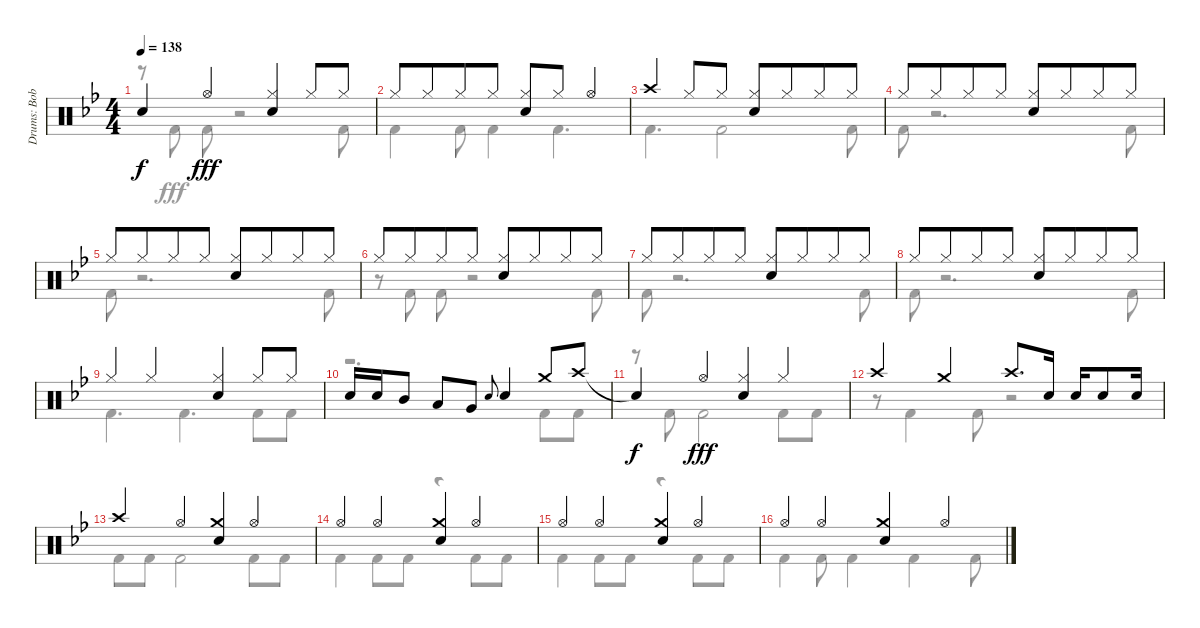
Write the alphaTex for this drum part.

\track ("Drums: Bobby" "Drums: Bob") {instrument percussion}
\staff {score}
\articulation defaults
\voice
\ts (4 4)
\tempo 138
\clef neutral
\ks bb "Snare (hit)"{t}.4{dy f} "Hi-Hat (open)".4{dy fff}
("Hi-Hat (closed)" "Snare (hit) 2").4{beam merge} "Hi-Hat (closed)".8 "Hi-Hat (closed)".8 |
"Hi-Hat (closed)".8 "Hi-Hat (closed)".8{beam merge} "Hi-Hat (closed)".8 "Hi-Hat (closed)".8 ("Hi-Hat (closed)" "Snare (hit) 2").8 "Hi-Hat (closed)".8{beam merge} "Hi-Hat (open)".4 |
"Crash high (hit)".4{beam merge} "Hi-Hat (closed)".8 "Hi-Hat (closed)".8 ("Hi-Hat (closed)" "Snare (hit) 2").8 "Hi-Hat (closed)".8{beam merge} "Hi-Hat (closed)".8 "Hi-Hat (closed)".8 |
"Hi-Hat (closed)".8 "Hi-Hat (closed)".8{beam merge} "Hi-Hat (closed)".8 "Hi-Hat (closed)".8 ("Hi-Hat (closed)" "Snare (hit) 2").8 "Hi-Hat (closed)".8{beam merge} "Hi-Hat (closed)".8 "Hi-Hat (closed)".8 |
"Hi-Hat (closed)".8 "Hi-Hat (closed)".8{beam merge} "Hi-Hat (closed)".8 "Hi-Hat (closed)".8 ("Hi-Hat (closed)" "Snare (hit) 2").8 "Hi-Hat (closed)".8{beam merge} "Hi-Hat (closed)".8 "Hi-Hat (closed)".8 |
"Hi-Hat (closed)".8 "Hi-Hat (closed)".8{beam merge} "Hi-Hat (closed)".8 "Hi-Hat (closed)".8 ("Hi-Hat (closed)" "Snare (hit) 2").8 "Hi-Hat (closed)".8{beam merge} "Hi-Hat (closed)".8 "Hi-Hat (closed)".8 |
"Hi-Hat (closed)".8 "Hi-Hat (closed)".8{beam merge} "Hi-Hat (closed)".8 "Hi-Hat (closed)".8 ("Hi-Hat (closed)" "Snare (hit) 2").8 "Hi-Hat (closed)".8{beam merge} "Hi-Hat (closed)".8 "Hi-Hat (closed)".8 |
"Hi-Hat (closed)".8 "Hi-Hat (closed)".8{beam merge} "Hi-Hat (closed)".8 "Hi-Hat (closed)".8 ("Hi-Hat (closed)" "Snare (hit) 2").8 "Hi-Hat (closed)".8{beam merge} "Hi-Hat (closed)".8 "Hi-Hat (closed)".8 |
"Hi-Hat (closed)".4 "Hi-Hat (closed)".4 ("Hi-Hat (closed)" "Snare (hit) 2").4 "Hi-Hat (closed)".8 "Hi-Hat (closed)".8 |
"Snare (hit) 2".16 "Snare (hit) 2".16 "Mid Tom (hit)".8 "Low Tom (hit)".8 "Very Low Tom (hit)".8 "Electric Snare (hit)".8{gr onbeat} "Snare (hit) 2".4 "Crash medium (hit)".8 "Crash high (hit)".8 |
"Snare (hit)"{t}.4{dy f} "Hi-Hat (open)".4{dy fff} ("Hi-Hat (closed)" "Snare (hit) 2").4 "Hi-Hat (closed)".4 |
"Crash high (hit)".4 "Crash medium (hit)".4 "Crash high (hit)".8{d} "Snare (hit) 2".16 "Snare (hit) 2".16 "Snare (hit) 2".8 "Snare (hit) 2".16 |
"Crash high (hit)".4 "Hi-Hat (open)".4 ("Crash medium (hit)" "Snare (hit) 2").4 "Hi-Hat (open)".4 |
"Hi-Hat (open)".4 "Hi-Hat (open)".4 ("Crash medium (hit)" "Snare (hit) 2").4 "Hi-Hat (open)".4 |
"Hi-Hat (open)".4 "Hi-Hat (open)".4 ("Crash medium (hit)" "Snare (hit) 2").4 "Hi-Hat (open)".4 |
"Hi-Hat (open)".4 "Hi-Hat (open)".4 ("Crash medium (hit)" "Snare (hit) 2").4 "Hi-Hat (open)".4
\voice
\clef neutral
\ottava regular
\simile none
\ks bb
r.8{dy fff} "Kick (hit) 2".8 "Kick (hit) 2".8 r.2 "Kick (hit) 2".8 |
"Kick (hit) 2".4 "Kick (hit) 2".8 "Kick (hit) 2".4 "Kick (hit) 2".4{d} |
"Kick (hit) 2".4{d} "Kick (hit) 2".2 "Kick (hit) 2".8 |
"Kick (hit) 2".8 r.2{d} "Kick (hit) 2".8 |
"Kick (hit) 2".8 r.2{d} "Kick (hit) 2".8 |
r.8 "Kick (hit) 2".8 "Kick (hit) 2".8 r.2 "Kick (hit) 2".8 |
"Kick (hit) 2".8 r.2{d} "Kick (hit) 2".8 |
"Kick (hit) 2".8 r.2{d} "Kick (hit) 2".8 |
"Kick (hit) 2".4{d} "Kick (hit) 2".4{d} "Kick (hit) 2".8 "Kick (hit) 2".8 |
r.2{d} "Kick (hit) 2".8 "Kick (hit) 2".8 |
r.8 "Kick (hit) 2".8 "Kick (hit) 2".2 "Kick (hit) 2".8 "Kick (hit) 2".8 |
r.8 "Kick (hit) 2".4 "Kick (hit) 2".8 r.2 |
"Kick (hit) 2".8 "Kick (hit) 2".8 "Kick (hit) 2".2 "Kick (hit) 2".8 "Kick (hit) 2".8 |
"Kick (hit) 2".4 "Kick (hit) 2".8 "Kick (hit) 2".8 r.4 "Kick (hit) 2".8 "Kick (hit) 2".8 |
"Kick (hit) 2".4 "Kick (hit) 2".8 "Kick (hit) 2".8 r.4 "Kick (hit) 2".8 "Kick (hit) 2".8 |
"Kick (hit) 2".4 "Kick (hit) 2".8 "Kick (hit) 2".4 "Kick (hit) 2".4 "Kick (hit) 2".8
